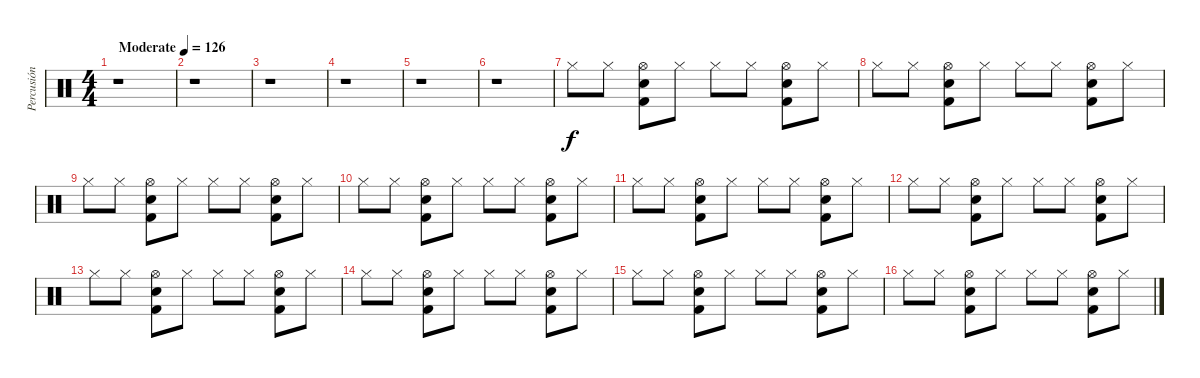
\track ("Percusión" "Percusión") {instrument percussion}
\staff {score}
\articulation defaults
\ts (4 4)
\tempo (126 "Moderate")
\clef neutral
\ks c
r.1{dy f} |
r.1 |
r.1 |
r.1 |
r.1 |
r.1 |
"Hi-Hat (closed)".8 "Hi-Hat (closed)".8 ("Snare (hit) 2" "Hi-Hat (open)" "Kick (hit) 2").8 "Hi-Hat (closed)".8 "Hi-Hat (closed)".8 "Hi-Hat (closed)".8 ("Snare (hit) 2" "Hi-Hat (open)" "Kick (hit) 2").8 "Hi-Hat (closed)".8 |
"Hi-Hat (closed)".8 "Hi-Hat (closed)".8 ("Snare (hit) 2" "Hi-Hat (open)" "Kick (hit) 2").8 "Hi-Hat (closed)".8 "Hi-Hat (closed)".8 "Hi-Hat (closed)".8 ("Snare (hit) 2" "Hi-Hat (open)" "Kick (hit) 2").8 "Hi-Hat (closed)".8 |
"Hi-Hat (closed)".8 "Hi-Hat (closed)".8 ("Snare (hit) 2" "Hi-Hat (open)" "Kick (hit) 2").8 "Hi-Hat (closed)".8 "Hi-Hat (closed)".8 "Hi-Hat (closed)".8 ("Snare (hit) 2" "Hi-Hat (open)" "Kick (hit) 2").8 "Hi-Hat (closed)".8 |
"Hi-Hat (closed)".8 "Hi-Hat (closed)".8 ("Snare (hit) 2" "Hi-Hat (open)" "Kick (hit) 2").8 "Hi-Hat (closed)".8 "Hi-Hat (closed)".8 "Hi-Hat (closed)".8 ("Snare (hit) 2" "Hi-Hat (open)" "Kick (hit) 2").8 "Hi-Hat (closed)".8 |
"Hi-Hat (closed)".8 "Hi-Hat (closed)".8 ("Snare (hit) 2" "Hi-Hat (open)" "Kick (hit) 2").8 "Hi-Hat (closed)".8 "Hi-Hat (closed)".8 "Hi-Hat (closed)".8 ("Snare (hit) 2" "Hi-Hat (open)" "Kick (hit) 2").8 "Hi-Hat (closed)".8 |
"Hi-Hat (closed)".8 "Hi-Hat (closed)".8 ("Snare (hit) 2" "Hi-Hat (open)" "Kick (hit) 2").8 "Hi-Hat (closed)".8 "Hi-Hat (closed)".8 "Hi-Hat (closed)".8 ("Snare (hit) 2" "Hi-Hat (open)" "Kick (hit) 2").8 "Hi-Hat (closed)".8 |
"Hi-Hat (closed)".8 "Hi-Hat (closed)".8 ("Snare (hit) 2" "Hi-Hat (open)" "Kick (hit) 2").8 "Hi-Hat (closed)".8 "Hi-Hat (closed)".8 "Hi-Hat (closed)".8 ("Snare (hit) 2" "Hi-Hat (open)" "Kick (hit) 2").8 "Hi-Hat (closed)".8 |
"Hi-Hat (closed)".8 "Hi-Hat (closed)".8 ("Snare (hit) 2" "Hi-Hat (open)" "Kick (hit) 2").8 "Hi-Hat (closed)".8 "Hi-Hat (closed)".8 "Hi-Hat (closed)".8 ("Snare (hit) 2" "Hi-Hat (open)" "Kick (hit) 2").8 "Hi-Hat (closed)".8 |
"Hi-Hat (closed)".8 "Hi-Hat (closed)".8 ("Snare (hit) 2" "Hi-Hat (open)" "Kick (hit) 2").8 "Hi-Hat (closed)".8 "Hi-Hat (closed)".8 "Hi-Hat (closed)".8 ("Snare (hit) 2" "Hi-Hat (open)" "Kick (hit) 2").8 "Hi-Hat (closed)".8 |
"Hi-Hat (closed)".8 "Hi-Hat (closed)".8 ("Snare (hit) 2" "Hi-Hat (open)" "Kick (hit) 2").8 "Hi-Hat (closed)".8 "Hi-Hat (closed)".8 "Hi-Hat (closed)".8 ("Snare (hit) 2" "Hi-Hat (open)" "Kick (hit) 2").8 "Hi-Hat (closed)".8
